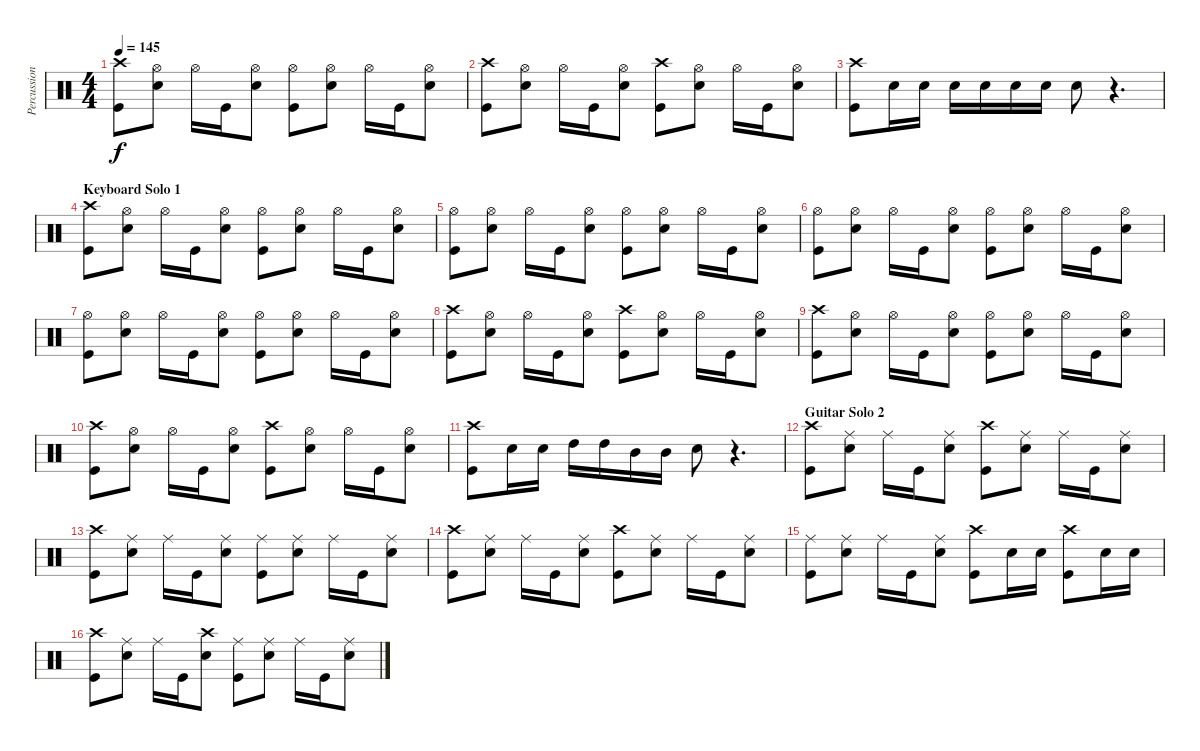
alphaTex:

\track ("Percussions" "Percussion") {instrument percussion}
\staff {score}
\articulation defaults
\ts (4 4)
\tempo 145
\clef neutral
\ks c
("Crash high (hit)" "Kick (hit)").8{dy f} ("Hi-Hat (open)" "Snare (hit) 2").8 "Hi-Hat (open)".16 "Kick (hit)".16 ("Hi-Hat (open)" "Snare (hit) 2").8 ("Hi-Hat (open)" "Kick (hit)").8 ("Hi-Hat (open)" "Snare (hit) 2").8 "Hi-Hat (open)".16 "Kick (hit)".16 ("Hi-Hat (open)" "Snare (hit) 2").8 |
("Crash high (hit)" "Kick (hit)").8 ("Hi-Hat (open)" "Snare (hit) 2").8 "Hi-Hat (open)".16 "Kick (hit)".16 ("Hi-Hat (open)" "Snare (hit) 2").8 ("Crash high (hit)" "Kick (hit)").8 ("Hi-Hat (open)" "Snare (hit) 2").8 "Hi-Hat (open)".16 "Kick (hit)".16 ("Hi-Hat (open)" "Snare (hit) 2").8 |
("Crash high (hit)" "Kick (hit)").8 "Snare (hit) 2".16 "Snare (hit) 2".16 "Snare (hit) 2".16 "Snare (hit) 2".16 "Snare (hit) 2".16 "Snare (hit) 2".16 "Snare (hit) 2".8 r.4{d} |
\section ("" "Keyboard Solo 1")
("Crash high (hit)" "Kick (hit)").8 ("Hi-Hat (open)" "Snare (hit) 2").8 "Hi-Hat (open)".16 "Kick (hit)".16 ("Hi-Hat (open)" "Snare (hit) 2").8 ("Hi-Hat (open)" "Kick (hit)").8 ("Hi-Hat (open)" "Snare (hit) 2").8 "Hi-Hat (open)".16 "Kick (hit)".16 ("Hi-Hat (open)" "Snare (hit) 2").8 |
("Hi-Hat (open)" "Kick (hit)").8 ("Hi-Hat (open)" "Snare (hit) 2").8 "Hi-Hat (open)".16 "Kick (hit)".16 ("Hi-Hat (open)" "Snare (hit) 2").8 ("Hi-Hat (open)" "Kick (hit)").8 ("Hi-Hat (open)" "Snare (hit) 2").8 "Hi-Hat (open)".16 "Kick (hit)".16 ("Hi-Hat (open)" "Snare (hit) 2").8 |
("Hi-Hat (open)" "Kick (hit)").8 ("Hi-Hat (open)" "Snare (hit) 2").8 "Hi-Hat (open)".16 "Kick (hit)".16 ("Hi-Hat (open)" "Snare (hit) 2").8 ("Hi-Hat (open)" "Kick (hit)").8 ("Hi-Hat (open)" "Snare (hit) 2").8 "Hi-Hat (open)".16 "Kick (hit)".16 ("Hi-Hat (open)" "Snare (hit) 2").8 |
("Hi-Hat (open)" "Kick (hit)").8 ("Hi-Hat (open)" "Snare (hit) 2").8 "Hi-Hat (open)".16 "Kick (hit)".16 ("Hi-Hat (open)" "Snare (hit) 2").8 ("Hi-Hat (open)" "Kick (hit)").8 ("Hi-Hat (open)" "Snare (hit) 2").8 "Hi-Hat (open)".16 "Kick (hit)".16 ("Hi-Hat (open)" "Snare (hit) 2").8 |
("Crash high (hit)" "Kick (hit)").8 ("Hi-Hat (open)" "Snare (hit) 2").8 "Hi-Hat (open)".16 "Kick (hit)".16 ("Hi-Hat (open)" "Snare (hit) 2").8 ("Crash high (hit)" "Kick (hit)").8 ("Hi-Hat (open)" "Snare (hit) 2").8 "Hi-Hat (open)".16 "Kick (hit)".16 ("Hi-Hat (open)" "Snare (hit) 2").8 |
("Crash high (hit)" "Kick (hit)").8 ("Hi-Hat (open)" "Snare (hit) 2").8 "Hi-Hat (open)".16 "Kick (hit)".16 ("Hi-Hat (open)" "Snare (hit) 2").8 ("Hi-Hat (open)" "Kick (hit)").8 ("Hi-Hat (open)" "Snare (hit) 2").8 "Hi-Hat (open)".16 "Kick (hit)".16 ("Hi-Hat (open)" "Snare (hit) 2").8 |
("Crash high (hit)" "Kick (hit)").8 ("Hi-Hat (open)" "Snare (hit) 2").8 "Hi-Hat (open)".16 "Kick (hit)".16 ("Hi-Hat (open)" "Snare (hit) 2").8 ("Crash high (hit)" "Kick (hit)").8 ("Hi-Hat (open)" "Snare (hit) 2").8 "Hi-Hat (open)".16 "Kick (hit)".16 ("Hi-Hat (open)" "Snare (hit) 2").8 |
("Crash high (hit)" "Kick (hit)").8 "Snare (hit) 2".16 "Snare (hit) 2".16 "High Tom (hit)".16 "High Tom (hit)".16 "Mid Tom (hit)".16 "Mid Tom (hit)".16 "Snare (hit) 2".8 r.4{d} |
\section ("" "Guitar Solo 2")
("Crash high (hit)" "Kick (hit)").8 ("Ride (middle)" "Snare (hit) 2").8 "Ride (middle)".16 "Kick (hit)".16 ("Ride (middle)" "Snare (hit) 2").8 ("Crash high (hit)" "Kick (hit)").8 ("Ride (middle)" "Snare (hit) 2").8 "Ride (middle)".16 "Kick (hit)".16 ("Ride (middle)" "Snare (hit) 2").8 |
("Crash high (hit)" "Kick (hit)").8 ("Ride (middle)" "Snare (hit) 2").8 "Ride (middle)".16 "Kick (hit)".16 ("Ride (middle)" "Snare (hit) 2").8 ("Ride (middle)" "Kick (hit)").8 ("Ride (middle)" "Snare (hit) 2").8 "Ride (middle)".16 "Kick (hit)".16 ("Ride (middle)" "Snare (hit) 2").8 |
("Crash high (hit)" "Kick (hit)").8 ("Ride (middle)" "Snare (hit) 2").8 "Ride (middle)".16 "Kick (hit)".16 ("Ride (middle)" "Snare (hit) 2").8 ("Crash high (hit)" "Kick (hit)").8 ("Ride (middle)" "Snare (hit) 2").8 "Ride (middle)".16 "Kick (hit)".16 ("Ride (middle)" "Snare (hit) 2").8 |
("Ride (middle)" "Kick (hit)").8 ("Ride (middle)" "Snare (hit) 2").8 "Ride (middle)".16 "Kick (hit)".16 ("Ride (middle)" "Snare (hit) 2").8 ("Crash high (hit)" "Kick (hit)").8 "Snare (hit) 2".16 "Snare (hit) 2".16 ("Crash high (hit)" "Kick (hit)").8 "Snare (hit) 2".16 "Snare (hit) 2".16 |
("Crash high (hit)" "Kick (hit)").8 ("Ride (middle)" "Snare (hit) 2").8 "Ride (middle)".16 "Kick (hit)".16 ("Crash high (hit)" "Snare (hit) 2").8 ("Ride (middle)" "Kick (hit)").8 ("Ride (middle)" "Snare (hit) 2").8 "Ride (middle)".16 "Kick (hit)".16 ("Ride (middle)" "Snare (hit) 2").8
